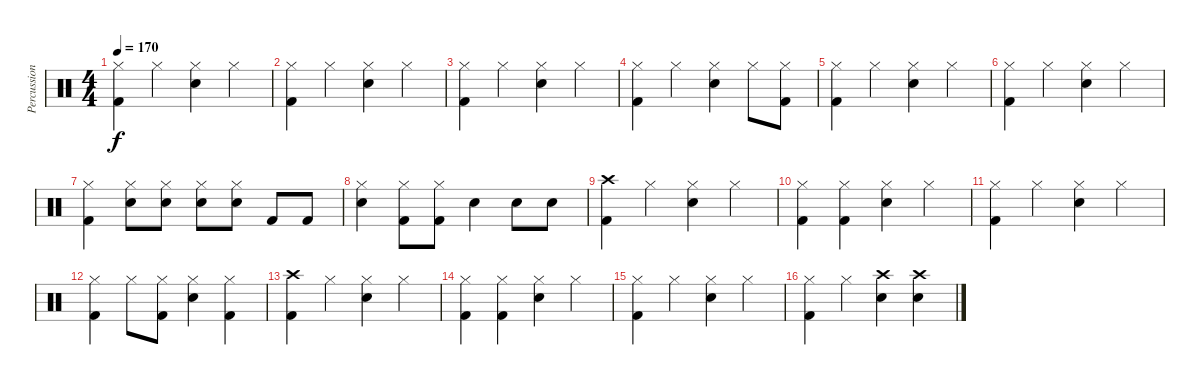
\track ("Percussion" "Percussion") {instrument percussion}
\staff {score}
\articulation defaults
\ts (4 4)
\tempo 170
\clef neutral
\ks c
("Hi-Hat (closed)" "Kick (hit) 2").4{dy f} "Hi-Hat (closed)".4 ("Hi-Hat (closed)" "Snare (hit) 2").4 "Hi-Hat (closed)".4 |
("Hi-Hat (closed)" "Kick (hit) 2").4 "Hi-Hat (closed)".4 ("Hi-Hat (closed)" "Snare (hit) 2").4 "Hi-Hat (closed)".4 |
("Hi-Hat (closed)" "Kick (hit) 2").4 "Hi-Hat (closed)".4 ("Hi-Hat (closed)" "Snare (hit) 2").4 "Hi-Hat (closed)".4 |
("Hi-Hat (closed)" "Kick (hit) 2").4 "Hi-Hat (closed)".4 ("Hi-Hat (closed)" "Snare (hit) 2").4 "Hi-Hat (closed)".8 ("Hi-Hat (closed)" "Kick (hit) 2").8 |
("Hi-Hat (closed)" "Kick (hit) 2").4 "Hi-Hat (closed)".4 ("Hi-Hat (closed)" "Snare (hit) 2").4 "Hi-Hat (closed)".4 |
("Hi-Hat (closed)" "Kick (hit) 2").4 "Hi-Hat (closed)".4 ("Hi-Hat (closed)" "Snare (hit) 2").4 "Hi-Hat (closed)".4 |
("Hi-Hat (closed)" "Kick (hit) 2").4 ("Hi-Hat (closed)" "Snare (hit) 2").8 ("Hi-Hat (closed)" "Snare (hit) 2").8 ("Hi-Hat (closed)" "Snare (hit) 2").8 ("Hi-Hat (closed)" "Snare (hit) 2").8 "Kick (hit) 2".8 "Kick (hit) 2".8 |
("Hi-Hat (closed)" "Snare (hit) 2").4 ("Hi-Hat (closed)" "Kick (hit) 2").8 ("Hi-Hat (closed)" "Kick (hit) 2").8 "Snare (hit) 2".4 "Snare (hit) 2".8 "Snare (hit) 2".8 |
("Crash high (hit)" "Kick (hit) 2").4 "Hi-Hat (closed)".4 ("Hi-Hat (closed)" "Snare (hit) 2").4 "Hi-Hat (closed)".4 |
("Hi-Hat (closed)" "Kick (hit) 2").4 ("Hi-Hat (closed)" "Kick (hit) 2").4 ("Hi-Hat (closed)" "Snare (hit) 2").4 "Hi-Hat (closed)".4 |
("Hi-Hat (closed)" "Kick (hit) 2").4 "Hi-Hat (closed)".4 ("Hi-Hat (closed)" "Snare (hit) 2").4 "Hi-Hat (closed)".4 |
("Hi-Hat (closed)" "Kick (hit) 2").4 "Hi-Hat (closed)".8 ("Hi-Hat (closed)" "Kick (hit) 2").8 ("Hi-Hat (closed)" "Snare (hit) 2").4 ("Hi-Hat (closed)" "Kick (hit) 2").4 |
("Crash high (hit)" "Kick (hit) 2").4 "Hi-Hat (closed)".4 ("Hi-Hat (closed)" "Snare (hit) 2").4 "Hi-Hat (closed)".4 |
("Hi-Hat (closed)" "Kick (hit) 2").4 ("Hi-Hat (closed)" "Kick (hit) 2").4 ("Hi-Hat (closed)" "Snare (hit) 2").4 "Hi-Hat (closed)".4 |
("Hi-Hat (closed)" "Kick (hit) 2").4 "Hi-Hat (closed)".4 ("Hi-Hat (closed)" "Snare (hit) 2").4 "Hi-Hat (closed)".4 |
("Hi-Hat (closed)" "Kick (hit) 2").4 "Hi-Hat (closed)".4 ("Crash high (hit)" "Snare (hit) 2").4 ("Crash high (hit)" "Snare (hit) 2").4
